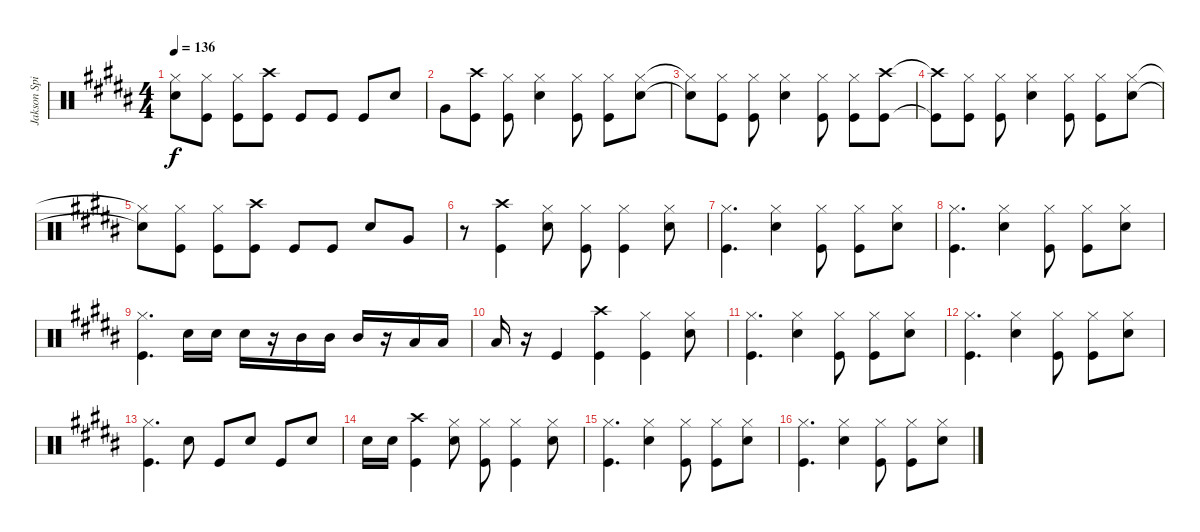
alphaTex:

\track ("Jakson Spires Drums" "Jakson Spi") {instrument percussion}
\staff {score}
\articulation defaults
\ts (4 4)
\tempo 136
\clef neutral
\ks b
("Hi-Hat (closed)"{t} "Snare (hit) 2"{t}).8{dy f} ("Hi-Hat (closed)" "Kick (hit)").8 ("Hi-Hat (closed)" "Kick (hit)").8 ("Crash high (hit)" "Kick (hit)").8 "Kick (hit)".8 "Kick (hit)".8 "Kick (hit)".8 "Snare (hit) 2".8 |
"Very Low Tom (hit)".8 ("Crash high (hit)" "Kick (hit)").8 ("Hi-Hat (closed)" "Kick (hit)").8 ("Hi-Hat (closed)" "Snare (hit) 2").4 ("Hi-Hat (closed)" "Kick (hit)").8 ("Hi-Hat (closed)" "Kick (hit)").8 ("Hi-Hat (closed)" "Snare (hit) 2").8 |
("Hi-Hat (closed)"{t} "Snare (hit) 2"{t}).8 ("Hi-Hat (closed)" "Kick (hit)").8 ("Hi-Hat (closed)" "Kick (hit)").8 ("Hi-Hat (closed)" "Snare (hit) 2").4 ("Hi-Hat (closed)" "Kick (hit)").8 ("Hi-Hat (closed)" "Kick (hit)").8 ("Crash high (hit)" "Kick (hit)").8 |
("Crash high (hit)"{t} "Kick (hit)"{t}).8 ("Hi-Hat (closed)" "Kick (hit)").8 ("Hi-Hat (closed)" "Kick (hit)").8 ("Hi-Hat (closed)" "Snare (hit) 2").4 ("Hi-Hat (closed)" "Kick (hit)").8 ("Hi-Hat (closed)" "Kick (hit)").8 ("Hi-Hat (closed)" "Snare (hit) 2").8 |
("Hi-Hat (closed)"{t} "Snare (hit) 2"{t}).8 ("Hi-Hat (closed)" "Kick (hit)").8 ("Hi-Hat (closed)" "Kick (hit)").8 ("Crash high (hit)" "Kick (hit)").8 "Kick (hit)".8 "Kick (hit)".8 "Snare (hit) 2".8 "Very Low Tom (hit)".8 |
r.8 ("Crash high (hit)" "Kick (hit)").4 ("Hi-Hat (closed)" "Snare (hit) 2").8 ("Hi-Hat (closed)" "Kick (hit)").8 ("Hi-Hat (closed)" "Kick (hit)").4 ("Hi-Hat (closed)" "Snare (hit) 2").8 |
("Hi-Hat (closed)" "Kick (hit)").4{d} ("Hi-Hat (closed)" "Snare (hit) 2").4 ("Hi-Hat (closed)" "Kick (hit)").8 ("Hi-Hat (closed)" "Kick (hit)").8 ("Hi-Hat (closed)" "Snare (hit) 2").8 |
("Hi-Hat (closed)" "Kick (hit)").4{d} ("Hi-Hat (closed)" "Snare (hit) 2").4 ("Hi-Hat (closed)" "Kick (hit)").8 ("Hi-Hat (closed)" "Kick (hit)").8 ("Hi-Hat (closed)" "Snare (hit) 2").8 |
("Hi-Hat (closed)" "Kick (hit)").4{d} "Snare (hit) 2".16 "Snare (hit) 2".16 "Snare (hit) 2".16 r.16 "Mid Tom (hit)".16 "Mid Tom (hit)".16 "Mid Tom (hit)".16 r.16 "Low Tom (hit)".16 "Low Tom (hit)".16 |
"Low Tom (hit)".16 r.16 "Kick (hit)".4 ("Crash high (hit)" "Kick (hit)").4 ("Hi-Hat (closed)" "Kick (hit)").4 ("Hi-Hat (closed)" "Snare (hit) 2").8 |
("Hi-Hat (closed)" "Kick (hit)").4{d} ("Hi-Hat (closed)" "Snare (hit) 2").4 ("Hi-Hat (closed)" "Kick (hit)").8 ("Hi-Hat (closed)" "Kick (hit)").8 ("Hi-Hat (closed)" "Snare (hit) 2").8 |
("Hi-Hat (closed)" "Kick (hit)").4{d} ("Hi-Hat (closed)" "Snare (hit) 2").4 ("Hi-Hat (closed)" "Kick (hit)").8 ("Hi-Hat (closed)" "Kick (hit)").8 ("Hi-Hat (closed)" "Snare (hit) 2").8 |
("Hi-Hat (closed)" "Kick (hit)").4{d} "Snare (hit) 2".8 "Kick (hit)".8 "Snare (hit) 2".8 "Kick (hit)".8 "Snare (hit) 2".8 |
"Snare (hit) 2".16 "Snare (hit) 2".16 ("Crash high (hit)" "Kick (hit)").4 ("Hi-Hat (closed)" "Snare (hit) 2").8 ("Hi-Hat (closed)" "Kick (hit)").8 ("Hi-Hat (closed)" "Kick (hit)").4 ("Hi-Hat (closed)" "Snare (hit) 2").8 |
("Hi-Hat (closed)" "Kick (hit)").4{d} ("Hi-Hat (closed)" "Snare (hit) 2").4 ("Hi-Hat (closed)" "Kick (hit)").8 ("Hi-Hat (closed)" "Kick (hit)").8 ("Hi-Hat (closed)" "Snare (hit) 2").8 |
("Hi-Hat (closed)" "Kick (hit)").4{d} ("Hi-Hat (closed)" "Snare (hit) 2").4 ("Hi-Hat (closed)" "Kick (hit)").8 ("Hi-Hat (closed)" "Kick (hit)").8 ("Hi-Hat (closed)" "Snare (hit) 2").8
